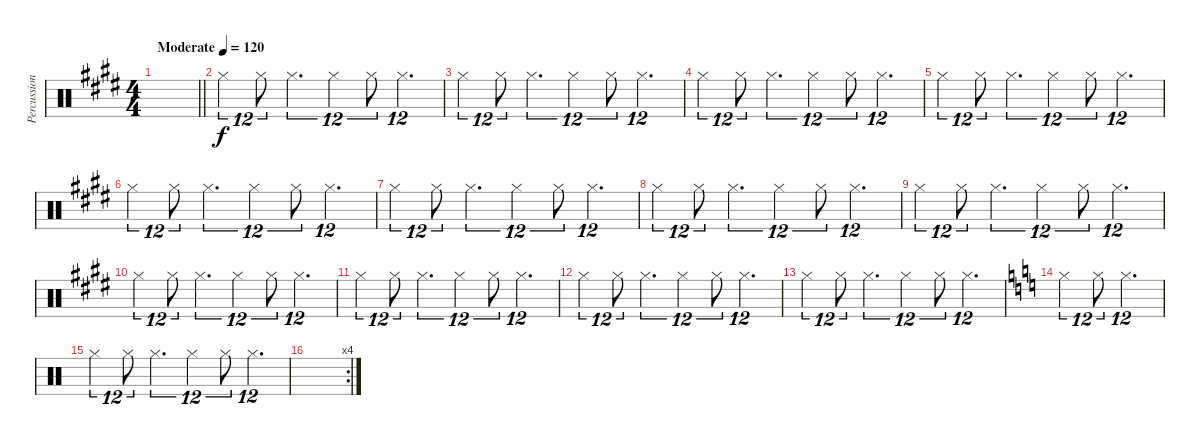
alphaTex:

\track ("Percussions" "Percussion") {instrument percussion}
\staff {score}
\articulation defaults
\ts (4 4)
\tempo (120 "Moderate")
\clef neutral
\barLineRight lightlight
\ks e
|
"Hi-Hat (closed)".4{tu (12 8)} "Hi-Hat (closed)".8{tu (12 8)} "Hi-Hat (closed)".4{d tu (12 8)} "Hi-Hat (closed)".4{tu (12 8)} "Hi-Hat (closed)".8{tu (12 8)} "Hi-Hat (closed)".4{d tu (12 8)} |
"Hi-Hat (closed)".4{tu (12 8)} "Hi-Hat (closed)".8{tu (12 8)} "Hi-Hat (closed)".4{d tu (12 8)} "Hi-Hat (closed)".4{tu (12 8)} "Hi-Hat (closed)".8{tu (12 8)} "Hi-Hat (closed)".4{d tu (12 8)} |
"Hi-Hat (closed)".4{tu (12 8)} "Hi-Hat (closed)".8{tu (12 8)} "Hi-Hat (closed)".4{d tu (12 8)} "Hi-Hat (closed)".4{tu (12 8)} "Hi-Hat (closed)".8{tu (12 8)} "Hi-Hat (closed)".4{d tu (12 8)} |
"Hi-Hat (closed)".4{tu (12 8)} "Hi-Hat (closed)".8{tu (12 8)} "Hi-Hat (closed)".4{d tu (12 8)} "Hi-Hat (closed)".4{tu (12 8)} "Hi-Hat (closed)".8{tu (12 8)} "Hi-Hat (closed)".4{d tu (12 8)} |
"Hi-Hat (closed)".4{tu (12 8)} "Hi-Hat (closed)".8{tu (12 8)} "Hi-Hat (closed)".4{d tu (12 8)} "Hi-Hat (closed)".4{tu (12 8)} "Hi-Hat (closed)".8{tu (12 8)} "Hi-Hat (closed)".4{d tu (12 8)} |
"Hi-Hat (closed)".4{tu (12 8)} "Hi-Hat (closed)".8{tu (12 8)} "Hi-Hat (closed)".4{d tu (12 8)} "Hi-Hat (closed)".4{tu (12 8)} "Hi-Hat (closed)".8{tu (12 8)} "Hi-Hat (closed)".4{d tu (12 8)} |
"Hi-Hat (closed)".4{tu (12 8)} "Hi-Hat (closed)".8{tu (12 8)} "Hi-Hat (closed)".4{d tu (12 8)} "Hi-Hat (closed)".4{tu (12 8)} "Hi-Hat (closed)".8{tu (12 8)} "Hi-Hat (closed)".4{d tu (12 8)} |
"Hi-Hat (closed)".4{tu (12 8)} "Hi-Hat (closed)".8{tu (12 8)} "Hi-Hat (closed)".4{d tu (12 8)} "Hi-Hat (closed)".4{tu (12 8)} "Hi-Hat (closed)".8{tu (12 8)} "Hi-Hat (closed)".4{d tu (12 8)} |
"Hi-Hat (closed)".4{tu (12 8)} "Hi-Hat (closed)".8{tu (12 8)} "Hi-Hat (closed)".4{d tu (12 8)} "Hi-Hat (closed)".4{tu (12 8)} "Hi-Hat (closed)".8{tu (12 8)} "Hi-Hat (closed)".4{d tu (12 8)} |
"Hi-Hat (closed)".4{tu (12 8)} "Hi-Hat (closed)".8{tu (12 8)} "Hi-Hat (closed)".4{d tu (12 8)} "Hi-Hat (closed)".4{tu (12 8)} "Hi-Hat (closed)".8{tu (12 8)} "Hi-Hat (closed)".4{d tu (12 8)} |
"Hi-Hat (closed)".4{tu (12 8)} "Hi-Hat (closed)".8{tu (12 8)} "Hi-Hat (closed)".4{d tu (12 8)} "Hi-Hat (closed)".4{tu (12 8)} "Hi-Hat (closed)".8{tu (12 8)} "Hi-Hat (closed)".4{d tu (12 8)} |
"Hi-Hat (closed)".4{tu (12 8)} "Hi-Hat (closed)".8{tu (12 8)} "Hi-Hat (closed)".4{d tu (12 8)} "Hi-Hat (closed)".4{tu (12 8)} "Hi-Hat (closed)".8{tu (12 8)} "Hi-Hat (closed)".4{d tu (12 8)} |
\ks c "Hi-Hat (closed)".4{tu (12 8)} "Hi-Hat (closed)".8{tu (12 8)} "Hi-Hat (closed)".4{d tu (12 8)}
|
"Hi-Hat (closed)".4{tu (12 8)} "Hi-Hat (closed)".8{tu (12 8)} "Hi-Hat (closed)".4{d tu (12 8)} "Hi-Hat (closed)".4{tu (12 8)} "Hi-Hat (closed)".8{tu (12 8)} "Hi-Hat (closed)".4{d tu (12 8)} |
\rc 4
